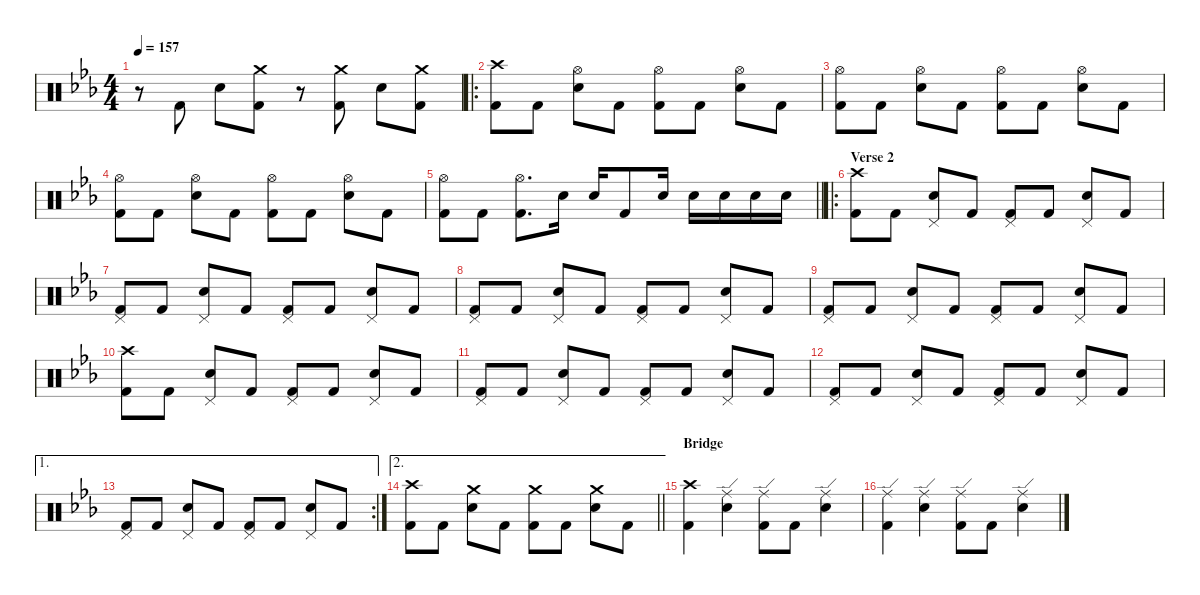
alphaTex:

\defaultSystemsLayout 4
\hideDynamics
\bracketExtendMode nobrackets
\singleTrackTrackNamePolicy hidden
\multiTrackTrackNamePolicy hidden
\firstSystemTrackNameMode fullname
\otherSystemsTrackNameOrientation horizontal
\track ("Drums" "drm.") {instrument percussion}
\staff {score}
\articulation defaults
\ts (4 4)
\tempo 157
\clef neutral
\ks cminor
r.8{dy f beam Down} "Kick (hit) 2"{acc forcenatural}.8{beam Up} "Snare (hit) 2"{acc forcenatural}.8{beam Down} ("Crash medium (hit)"{acc forcenatural} "Kick (hit) 2"{acc forcenatural}).8{dy mf beam Down} r.8{beam Down} ("Crash medium (hit)"{acc forcenatural} "Kick (hit) 2"{acc forcenatural}).8{beam Down} "Snare (hit) 2"{acc forcenatural}.8{dy f beam Down} ("Crash medium (hit)"{acc forcenatural} "Kick (hit) 2"{acc forcenatural}).8{dy mf beam Down} |
\ro
("Crash high (hit)"{acc forcenatural} "Kick (hit) 2"{acc forcenatural}).8{dy f beam Down} "Kick (hit) 2"{acc forcenatural}.8{beam Down} ("Hi-Hat (open)"{acc forcenatural} "Snare (hit) 2"{acc forcenatural}).8{beam Down} "Kick (hit) 2"{acc forcenatural}.8{beam Down} ("Hi-Hat (open)"{acc forcenatural} "Kick (hit) 2"{acc forcenatural}).8{beam Down} "Kick (hit) 2"{acc forcenatural}.8{beam Down} ("Hi-Hat (open)"{acc forcenatural} "Snare (hit) 2"{acc forcenatural}).8{beam Down} "Kick (hit) 2"{acc forcenatural}.8{beam Down} |
("Hi-Hat (open)"{acc forcenatural} "Kick (hit) 2"{acc forcenatural}).8{beam Down} "Kick (hit) 2"{acc forcenatural}.8{beam Down} ("Hi-Hat (open)"{acc forcenatural} "Snare (hit) 2"{acc forcenatural}).8{beam Down} "Kick (hit) 2"{acc forcenatural}.8{beam Down} ("Hi-Hat (open)"{acc forcenatural} "Kick (hit) 2"{acc forcenatural}).8{beam Down} "Kick (hit) 2"{acc forcenatural}.8{beam Down} ("Hi-Hat (open)"{acc forcenatural} "Snare (hit) 2"{acc forcenatural}).8{beam Down} "Kick (hit) 2"{acc forcenatural}.8{beam Down} |
("Hi-Hat (open)"{acc forcenatural} "Kick (hit) 2"{acc forcenatural}).8{beam Down} "Kick (hit) 2"{acc forcenatural}.8{beam Down} ("Hi-Hat (open)"{acc forcenatural} "Snare (hit) 2"{acc forcenatural}).8{beam Down} "Kick (hit) 2"{acc forcenatural}.8{beam Down} ("Hi-Hat (open)"{acc forcenatural} "Kick (hit) 2"{acc forcenatural}).8{beam Down} "Kick (hit) 2"{acc forcenatural}.8{beam Down} ("Hi-Hat (open)"{acc forcenatural} "Snare (hit) 2"{acc forcenatural}).8{beam Down} "Kick (hit) 2"{acc forcenatural}.8{beam Down} |
\barLineRight lightlight
("Hi-Hat (open)"{acc forcenatural} "Kick (hit) 2"{acc forcenatural}).8{beam Down} "Kick (hit) 2"{acc forcenatural}.8{beam Down} ("Hi-Hat (open)"{acc forcenatural} "Kick (hit) 2"{acc forcenatural}).8{d beam Down} "Snare (hit) 2"{acc forcenatural}.16{dy mp beam Down} "Snare (hit) 2"{acc forcenatural}.16{dy f beam Up} "Kick (hit) 2"{acc forcenatural}.8{beam Up} "Snare (hit) 2"{acc forcenatural}.16{dy mf beam Up} "Snare (hit) 2"{acc forcenatural}.16{dy f beam Down} "Snare (hit) 2"{acc forcenatural}.16{beam Down} "Snare (hit) 2"{acc forcenatural}.16{beam Down} "Snare (hit) 2"{acc forcenatural}.16{beam Down} |
\ro
\section ("" "Verse 2")
("Crash high (hit)"{acc forcenatural} "Kick (hit) 2"{acc forcenatural}).8{beam Down} "Kick (hit) 2"{acc forcenatural}.8{beam Down} ("Pedal Hi-Hat (hit)"{acc forcenatural} "Snare (hit) 2"{acc forcenatural}).8{beam Up} "Kick (hit) 2"{acc forcenatural}.8{beam Up} ("Pedal Hi-Hat (hit)"{acc forcenatural} "Kick (hit) 2"{acc forcenatural}).8{beam Up} "Kick (hit) 2"{acc forcenatural}.8{beam Up} ("Pedal Hi-Hat (hit)"{acc forcenatural} "Snare (hit) 2"{acc forcenatural}).8{beam Up} "Kick (hit) 2"{acc forcenatural}.8{beam Up} |
("Pedal Hi-Hat (hit)"{acc forcenatural} "Kick (hit) 2"{acc forcenatural}).8{beam Up} "Kick (hit) 2"{acc forcenatural}.8{beam Up} ("Pedal Hi-Hat (hit)"{acc forcenatural} "Snare (hit) 2"{acc forcenatural}).8{beam Up} "Kick (hit) 2"{acc forcenatural}.8{beam Up} ("Pedal Hi-Hat (hit)"{acc forcenatural} "Kick (hit) 2"{acc forcenatural}).8{beam Up} "Kick (hit) 2"{acc forcenatural}.8{beam Up} ("Pedal Hi-Hat (hit)"{acc forcenatural} "Snare (hit) 2"{acc forcenatural}).8{beam Up} "Kick (hit) 2"{acc forcenatural}.8{beam Up} |
("Pedal Hi-Hat (hit)"{acc forcenatural} "Kick (hit) 2"{acc forcenatural}).8{beam Up} "Kick (hit) 2"{acc forcenatural}.8{beam Up} ("Pedal Hi-Hat (hit)"{acc forcenatural} "Snare (hit) 2"{acc forcenatural}).8{beam Up} "Kick (hit) 2"{acc forcenatural}.8{beam Up} ("Pedal Hi-Hat (hit)"{acc forcenatural} "Kick (hit) 2"{acc forcenatural}).8{beam Up} "Kick (hit) 2"{acc forcenatural}.8{beam Up} ("Pedal Hi-Hat (hit)"{acc forcenatural} "Snare (hit) 2"{acc forcenatural}).8{beam Up} "Kick (hit) 2"{acc forcenatural}.8{beam Up} |
("Pedal Hi-Hat (hit)"{acc forcenatural} "Kick (hit) 2"{acc forcenatural}).8{beam Up} "Kick (hit) 2"{acc forcenatural}.8{beam Up} ("Pedal Hi-Hat (hit)"{acc forcenatural} "Snare (hit) 2"{acc forcenatural}).8{beam Up} "Kick (hit) 2"{acc forcenatural}.8{beam Up} ("Pedal Hi-Hat (hit)"{acc forcenatural} "Kick (hit) 2"{acc forcenatural}).8{beam Up} "Kick (hit) 2"{acc forcenatural}.8{beam Up} ("Pedal Hi-Hat (hit)"{acc forcenatural} "Snare (hit) 2"{acc forcenatural}).8{beam Up} "Kick (hit) 2"{acc forcenatural}.8{beam Up} |
("Crash high (hit)"{acc forcenatural} "Kick (hit) 2"{acc forcenatural}).8{beam Down} "Kick (hit) 2"{acc forcenatural}.8{beam Down} ("Pedal Hi-Hat (hit)"{acc forcenatural} "Snare (hit) 2"{acc forcenatural}).8{beam Up} "Kick (hit) 2"{acc forcenatural}.8{beam Up} ("Pedal Hi-Hat (hit)"{acc forcenatural} "Kick (hit) 2"{acc forcenatural}).8{beam Up} "Kick (hit) 2"{acc forcenatural}.8{beam Up} ("Pedal Hi-Hat (hit)"{acc forcenatural} "Snare (hit) 2"{acc forcenatural}).8{beam Up} "Kick (hit) 2"{acc forcenatural}.8{beam Up} |
("Pedal Hi-Hat (hit)"{acc forcenatural} "Kick (hit) 2"{acc forcenatural}).8{beam Up} "Kick (hit) 2"{acc forcenatural}.8{beam Up} ("Pedal Hi-Hat (hit)"{acc forcenatural} "Snare (hit) 2"{acc forcenatural}).8{beam Up} "Kick (hit) 2"{acc forcenatural}.8{beam Up} ("Pedal Hi-Hat (hit)"{acc forcenatural} "Kick (hit) 2"{acc forcenatural}).8{beam Up} "Kick (hit) 2"{acc forcenatural}.8{beam Up} ("Pedal Hi-Hat (hit)"{acc forcenatural} "Snare (hit) 2"{acc forcenatural}).8{beam Up} "Kick (hit) 2"{acc forcenatural}.8{beam Up} |
("Pedal Hi-Hat (hit)"{acc forcenatural} "Kick (hit) 2"{acc forcenatural}).8{beam Up} "Kick (hit) 2"{acc forcenatural}.8{beam Up} ("Pedal Hi-Hat (hit)"{acc forcenatural} "Snare (hit) 2"{acc forcenatural}).8{beam Up} "Kick (hit) 2"{acc forcenatural}.8{beam Up} ("Pedal Hi-Hat (hit)"{acc forcenatural} "Kick (hit) 2"{acc forcenatural}).8{beam Up} "Kick (hit) 2"{acc forcenatural}.8{beam Up} ("Pedal Hi-Hat (hit)"{acc forcenatural} "Snare (hit) 2"{acc forcenatural}).8{beam Up} "Kick (hit) 2"{acc forcenatural}.8{beam Up} |
\ae 1
\rc 2
("Pedal Hi-Hat (hit)"{acc forcenatural} "Kick (hit) 2"{acc forcenatural}).8{beam Up} "Kick (hit) 2"{acc forcenatural}.8{beam Up} ("Pedal Hi-Hat (hit)"{acc forcenatural} "Snare (hit) 2"{acc forcenatural}).8{beam Up} "Kick (hit) 2"{acc forcenatural}.8{beam Up} ("Pedal Hi-Hat (hit)"{acc forcenatural} "Kick (hit) 2"{acc forcenatural}).8{beam Up} "Kick (hit) 2"{acc forcenatural}.8{beam Up} ("Pedal Hi-Hat (hit)"{acc forcenatural} "Snare (hit) 2"{acc forcenatural}).8{beam Up} "Kick (hit) 2"{acc forcenatural}.8{beam Up} |
\ae 2
\barLineRight lightlight
("Crash high (hit)"{acc forcenatural} "Kick (hit) 2"{acc forcenatural}).8{dy mp beam Down} "Kick (hit) 2"{acc forcenatural}.8{dy f beam Down} ("Crash medium (hit)"{acc forcenatural} "Snare (hit) 2"{acc forcenatural}).8{dy mp beam Down} "Kick (hit) 2"{acc forcenatural}.8{dy f beam Down} ("Crash medium (hit)"{acc forcenatural} "Kick (hit) 2"{acc forcenatural}).8{dy mf beam Down} "Kick (hit) 2"{acc forcenatural}.8{dy f beam Down} ("Crash medium (hit)"{acc forcenatural} "Snare (hit) 2"{acc forcenatural}).8{beam Down} "Kick (hit) 2"{acc forcenatural}.8{beam Down} |
\section ("" "Bridge")
("Crash high (hit)"{acc forcenatural} "Kick (hit) 2"{acc forcenatural}).4{beam Down} ("Ride (edge)"{acc forcenatural} "Snare (hit) 2"{acc forcenatural}).4{beam Down} ("Ride (edge)"{acc forcenatural} "Kick (hit) 2"{acc forcenatural}).8{beam Down} "Kick (hit) 2"{acc forcenatural}.8{beam Down} ("Ride (edge)"{acc forcenatural} "Snare (hit) 2"{acc forcenatural}).4{beam Down} |
("Ride (edge)"{acc forcenatural} "Kick (hit) 2"{acc forcenatural}).4{beam Down} ("Ride (edge)"{acc forcenatural} "Snare (hit) 2"{acc forcenatural}).4{beam Down} ("Ride (edge)"{acc forcenatural} "Kick (hit) 2"{acc forcenatural}).8{beam Down} "Kick (hit) 2"{acc forcenatural}.8{beam Down} ("Ride (edge)"{acc forcenatural} "Snare (hit) 2"{acc forcenatural}).4{beam Down}
